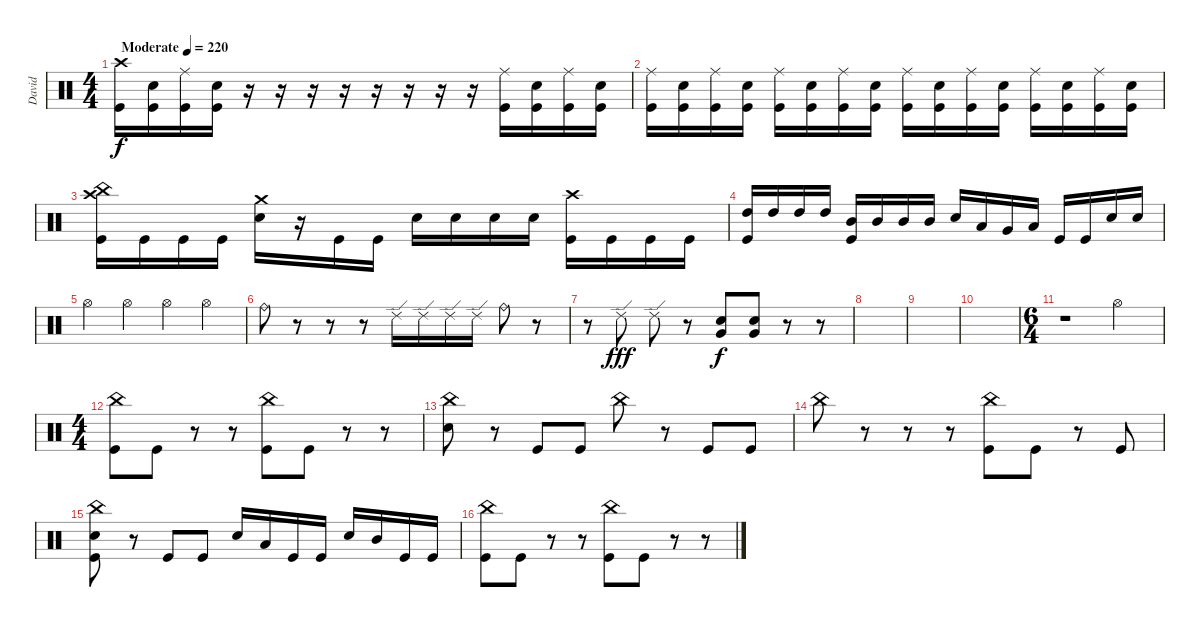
\track ("David" "David") {instrument percussion}
\staff {score}
\articulation defaults
\ts (4 4)
\tempo (220 "Moderate")
\clef neutral
\ks c
("Crash high (hit)" "Kick (hit)").16{dy f} ("Electric Snare (hit)" "Kick (hit)").16 ("Ride (middle)" "Kick (hit)").16 ("Electric Snare (hit)" "Kick (hit)").16 r.16 r.16 r.16 r.16 r.16 r.16 r.16 r.16 ("Ride (middle)" "Kick (hit)").16 ("Electric Snare (hit)" "Kick (hit)").16 ("Ride (middle)" "Kick (hit)").16 ("Electric Snare (hit)" "Kick (hit)").16 |
("Ride (middle)" "Kick (hit)").16 ("Electric Snare (hit)" "Kick (hit)").16 ("Ride (middle)" "Kick (hit)").16 ("Electric Snare (hit)" "Kick (hit)").16 ("Ride (middle)" "Kick (hit)").16 ("Electric Snare (hit)" "Kick (hit)").16 ("Ride (middle)" "Kick (hit)").16 ("Electric Snare (hit)" "Kick (hit)").16 ("Ride (middle)" "Kick (hit)").16 ("Electric Snare (hit)" "Kick (hit)").16 ("Ride (middle)" "Kick (hit)").16 ("Electric Snare (hit)" "Kick (hit)").16 ("Ride (middle)" "Kick (hit)").16 ("Electric Snare (hit)" "Kick (hit)").16 ("Ride (middle)" "Kick (hit)").16 ("Electric Snare (hit)" "Kick (hit)").16 |
("China (hit)" "Crash high (hit)" "Kick (hit)").16 "Kick (hit)".16 "Kick (hit)".16 "Kick (hit)".16 ("Crash medium (hit)" "Electric Snare (hit)").16 r.16 "Kick (hit)".16 "Kick (hit)".16 "Electric Snare (hit)".16 "Electric Snare (hit)".16 "Electric Snare (hit)".16 "Electric Snare (hit)".16 ("Crash high (hit)" "Kick (hit)").16 "Kick (hit)".16 "Kick (hit)".16 "Kick (hit)".16 |
("High Tom (hit)" "Kick (hit)").16 "High Tom (hit)".16 "High Tom (hit)".16 "High Tom (hit)".16 ("Mid Tom (hit)" "Kick (hit)").16 "Mid Tom (hit)".16 "Mid Tom (hit)".16 "Mid Tom (hit)".16 "Electric Snare (hit)".16 "Low Tom (hit)".16 "Very Low Tom (hit)".16 "Low Tom (hit)".16 "Kick (hit)".16 "Kick (hit)".16 "Electric Snare (hit)".16 "Electric Snare (hit)".16 |
"Hi-Hat (open)".4 "Hi-Hat (open)".4 "Hi-Hat (open)".4 "Hi-Hat (open)".4 |
"Ride (bell)".8 r.8 r.8 r.8 "Ride (edge) 2".16 "Ride (edge) 2".16 "Ride (edge) 2".16 "Ride (edge) 2".16 "Ride (bell)".8 r.8 |
r.8 "Ride (edge) 2".8{dy fff} "Ride (edge) 2".8 r.8 ("Very Low Tom (hit)" "Electric Snare (hit)").8{dy f} ("Very Low Tom (hit)" "Electric Snare (hit)").8 r.8 r.8 |
|
|
|
\ts (6 4)
r.1 "Hi-Hat (open)".2 |
\ts (4 4)
("China (hit)" "Kick (hit)").8 "Kick (hit)".8 r.8 r.8 ("China (hit)" "Kick (hit)").8 "Kick (hit)".8 r.8 r.8 |
("China (hit)" "Electric Snare (hit)").8 r.8 "Kick (hit)".8 "Kick (hit)".8 "China (hit)".8 r.8 "Kick (hit)".8 "Kick (hit)".8 |
"China (hit)".8 r.8 r.8 r.8 ("China (hit)" "Kick (hit)").8 "Kick (hit)".8 r.8 "Kick (hit)".8 |
("China (hit)" "Electric Snare (hit)" "Kick (hit)").8 r.8 "Kick (hit)".8 "Kick (hit)".8 "Electric Snare (hit)".16 "Low Tom (hit)".16 "Kick (hit)".16 "Kick (hit)".16 "Electric Snare (hit)".16 "Mid Tom (hit)".16 "Kick (hit)".16 "Kick (hit)".16 |
("China (hit)" "Kick (hit)").8 "Kick (hit)".8 r.8 r.8 ("China (hit)" "Kick (hit)").8 "Kick (hit)".8 r.8 r.8
